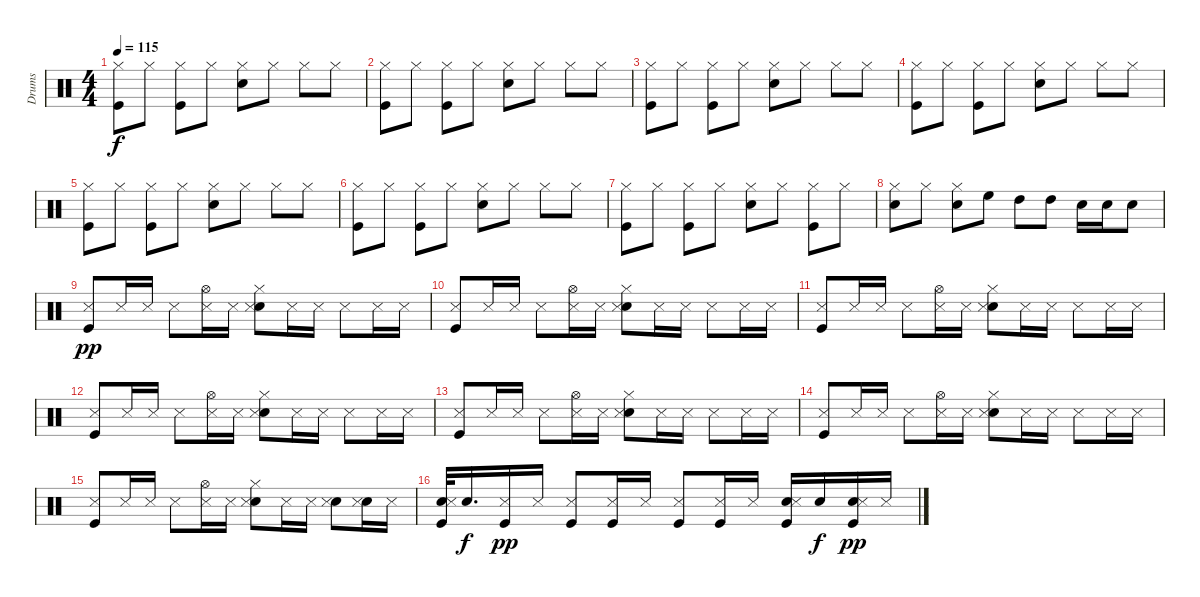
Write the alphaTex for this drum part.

\track ("Drums" "Drums") {instrument percussion}
\staff {score}
\articulation defaults
\ts (4 4)
\tempo 115
\clef neutral
\ks c
("Hi-Hat (closed)" "Kick (hit)").8{dy f} "Hi-Hat (closed)".8 ("Hi-Hat (closed)" "Kick (hit)").8 "Hi-Hat (closed)".8 ("Hi-Hat (closed)" "Snare (hit) 2").8 "Hi-Hat (closed)".8 "Hi-Hat (closed)".8 "Hi-Hat (closed)".8 |
("Hi-Hat (closed)" "Kick (hit)").8 "Hi-Hat (closed)".8 ("Hi-Hat (closed)" "Kick (hit)").8 "Hi-Hat (closed)".8 ("Hi-Hat (closed)" "Snare (hit) 2").8 "Hi-Hat (closed)".8 "Hi-Hat (closed)".8 "Hi-Hat (closed)".8 |
("Hi-Hat (closed)" "Kick (hit)").8 "Hi-Hat (closed)".8 ("Hi-Hat (closed)" "Kick (hit)").8 "Hi-Hat (closed)".8 ("Hi-Hat (closed)" "Snare (hit) 2").8 "Hi-Hat (closed)".8 "Hi-Hat (closed)".8 "Hi-Hat (closed)".8 |
("Hi-Hat (closed)" "Kick (hit)").8 "Hi-Hat (closed)".8 ("Hi-Hat (closed)" "Kick (hit)").8 "Hi-Hat (closed)".8 ("Hi-Hat (closed)" "Snare (hit) 2").8 "Hi-Hat (closed)".8 "Hi-Hat (closed)".8 "Hi-Hat (closed)".8 |
("Hi-Hat (closed)" "Kick (hit)").8 "Hi-Hat (closed)".8 ("Hi-Hat (closed)" "Kick (hit)").8 "Hi-Hat (closed)".8 ("Hi-Hat (closed)" "Snare (hit) 2").8 "Hi-Hat (closed)".8 "Hi-Hat (closed)".8 "Hi-Hat (closed)".8 |
("Hi-Hat (closed)" "Kick (hit)").8 "Hi-Hat (closed)".8 ("Hi-Hat (closed)" "Kick (hit)").8 "Hi-Hat (closed)".8 ("Hi-Hat (closed)" "Snare (hit) 2").8 "Hi-Hat (closed)".8 "Hi-Hat (closed)".8 "Hi-Hat (closed)".8 |
("Hi-Hat (closed)" "Kick (hit)").8 "Hi-Hat (closed)".8 ("Hi-Hat (closed)" "Kick (hit)").8 "Hi-Hat (closed)".8 ("Hi-Hat (closed)" "Snare (hit) 2").8 "Hi-Hat (closed)".8 ("Hi-Hat (closed)" "Kick (hit)").8 "Hi-Hat (closed)".8 |
("Hi-Hat (closed)" "Snare (hit) 2").8 "Hi-Hat (closed)".8 ("Hi-Hat (closed)" "Snare (hit) 2").8 "High Floor Tom (hit)".8 "High Tom (hit)".8 "High Tom (hit)".8 "Snare (hit) 2".16 "Snare (hit) 2".16 "Snare (hit) 2".8 |
("Snare (side stick) 3" "Kick (hit)").8{dy pp} "Snare (side stick) 3".16 "Snare (side stick) 3".16 "Snare (side stick) 3".8 ("Hi-Hat (open)" "Snare (side stick) 3").16 "Snare (side stick) 3".16 ("Hi-Hat (closed)" "Snare (hit) 2" "Snare (side stick) 3").8 "Snare (side stick) 3".16 "Snare (side stick) 3".16 "Snare (side stick) 3".8 "Snare (side stick) 3".16 "Snare (side stick) 3".16 |
("Snare (side stick) 3" "Kick (hit)").8 "Snare (side stick) 3".16 "Snare (side stick) 3".16 "Snare (side stick) 3".8 ("Hi-Hat (open)" "Snare (side stick) 3").16 "Snare (side stick) 3".16 ("Hi-Hat (closed)" "Snare (hit) 2" "Snare (side stick) 3").8 "Snare (side stick) 3".16 "Snare (side stick) 3".16 "Snare (side stick) 3".8 "Snare (side stick) 3".16 "Snare (side stick) 3".16 |
("Snare (side stick) 3" "Kick (hit)").8 "Snare (side stick) 3".16 "Snare (side stick) 3".16 "Snare (side stick) 3".8 ("Hi-Hat (open)" "Snare (side stick) 3").16 "Snare (side stick) 3".16 ("Hi-Hat (closed)" "Snare (hit) 2" "Snare (side stick) 3").8 "Snare (side stick) 3".16 "Snare (side stick) 3".16 "Snare (side stick) 3".8 "Snare (side stick) 3".16 "Snare (side stick) 3".16 |
("Snare (side stick) 3" "Kick (hit)").8 "Snare (side stick) 3".16 "Snare (side stick) 3".16 "Snare (side stick) 3".8 ("Hi-Hat (open)" "Snare (side stick) 3").16 "Snare (side stick) 3".16 ("Hi-Hat (closed)" "Snare (hit) 2" "Snare (side stick) 3").8 "Snare (side stick) 3".16 "Snare (side stick) 3".16 "Snare (side stick) 3".8 "Snare (side stick) 3".16 "Snare (side stick) 3".16 |
("Snare (side stick) 3" "Kick (hit)").8 "Snare (side stick) 3".16 "Snare (side stick) 3".16 "Snare (side stick) 3".8 ("Hi-Hat (open)" "Snare (side stick) 3").16 "Snare (side stick) 3".16 ("Hi-Hat (closed)" "Snare (hit) 2" "Snare (side stick) 3").8 "Snare (side stick) 3".16 "Snare (side stick) 3".16 "Snare (side stick) 3".8 "Snare (side stick) 3".16 "Snare (side stick) 3".16 |
("Snare (side stick) 3" "Kick (hit)").8 "Snare (side stick) 3".16 "Snare (side stick) 3".16 "Snare (side stick) 3".8 ("Hi-Hat (open)" "Snare (side stick) 3").16 "Snare (side stick) 3".16 ("Hi-Hat (closed)" "Snare (hit) 2" "Snare (side stick) 3").8 "Snare (side stick) 3".16 "Snare (side stick) 3".16 "Snare (side stick) 3".8 "Snare (side stick) 3".16 "Snare (side stick) 3".16 |
("Snare (side stick) 3" "Kick (hit)").8 "Snare (side stick) 3".16 "Snare (side stick) 3".16 "Snare (side stick) 3".8 ("Hi-Hat (open)" "Snare (side stick) 3").16 "Snare (side stick) 3".16 ("Hi-Hat (closed)" "Snare (hit) 2" "Snare (side stick) 3").8 "Snare (side stick) 3".16 "Snare (side stick) 3".16 ("Snare (hit) 2" "Snare (side stick) 3").8 ("Snare (hit) 2" "Snare (side stick) 3").16 "Snare (side stick) 3".16 |
("Snare (hit) 2" "Snare (side stick) 3" "Kick (hit)").32 "Snare (hit) 2".16{d dy f} ("Snare (side stick) 3" "Kick (hit)").16{dy pp} "Snare (side stick) 3".16 ("Snare (side stick) 3" "Kick (hit)").8 ("Snare (side stick) 3" "Kick (hit)").16 "Snare (side stick) 3".16 ("Snare (side stick) 3" "Kick (hit)").8 ("Snare (side stick) 3" "Kick (hit)").16 "Snare (side stick) 3".16 ("Snare (hit) 2" "Snare (side stick) 3" "Kick (hit)").16 "Snare (hit) 2".16{dy f} ("Snare (hit) 2" "Snare (side stick) 3" "Kick (hit)").16{dy pp} "Snare (side stick) 3".16
